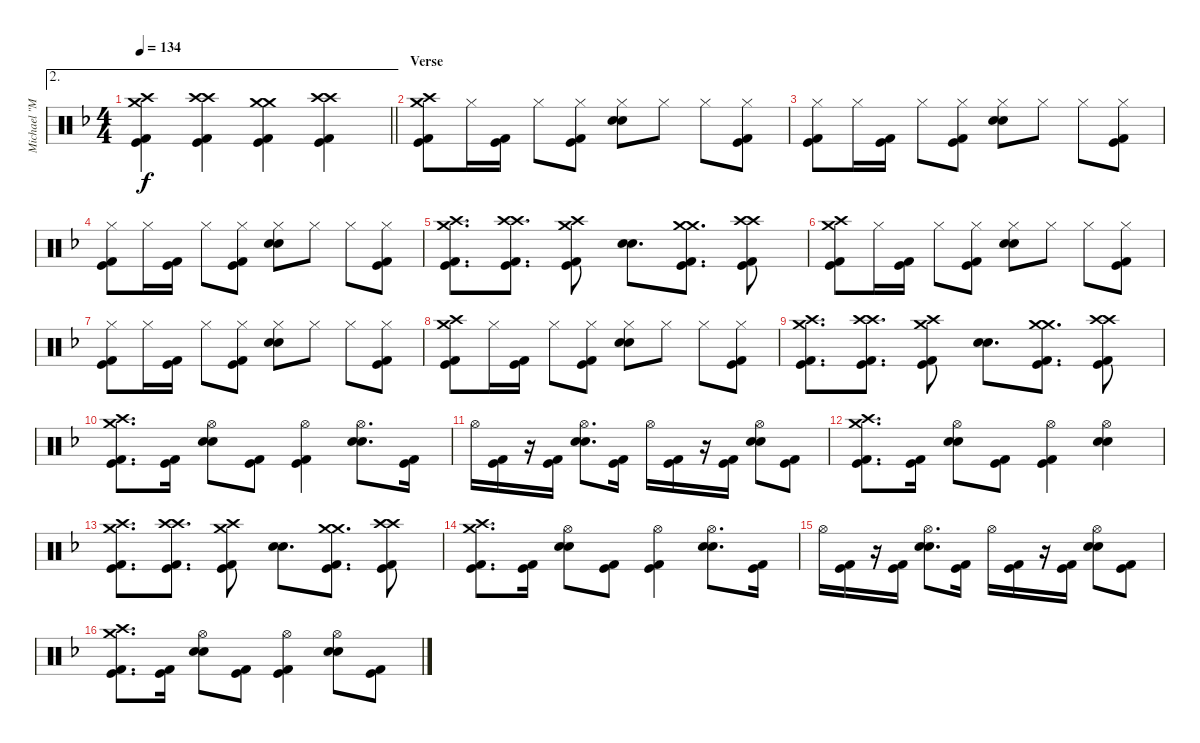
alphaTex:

\track ("Michael \"Moose\" Thomas" "Michael \"M") {instrument percussion}
\staff {score}
\articulation defaults
\ae 2
\ts (4 4)
\tempo 134
\clef neutral
\barLineRight lightlight
\ks f
("Crash high (hit)" "Crash medium (hit)" "Kick (hit)" "Kick (hit) 2").4{dy f} ("Crash high (hit)" "Crash high (hit)" "Kick (hit)" "Kick (hit) 2").4 ("Crash medium (hit)" "Crash medium (hit)" "Kick (hit)" "Kick (hit) 2").4 ("Crash high (hit)" "Crash high (hit)" "Kick (hit)" "Kick (hit) 2").4 |
\section ("" "Verse")
("Crash high (hit)" "Crash medium (hit)" "Kick (hit)" "Kick (hit) 2").8 "Hi-Hat (closed)".16 ("Kick (hit)" "Kick (hit) 2").16 "Hi-Hat (closed)".8 ("Hi-Hat (closed)" "Kick (hit)" "Kick (hit) 2").8 ("Hi-Hat (closed)" "Electric Snare (hit)" "Electric Snare (hit)").8 "Hi-Hat (closed)".8 "Hi-Hat (closed)".8 ("Hi-Hat (closed)" "Kick (hit)" "Kick (hit) 2").8 |
("Hi-Hat (closed)" "Kick (hit)" "Kick (hit) 2").8 "Hi-Hat (closed)".16 ("Kick (hit)" "Kick (hit) 2").16 "Hi-Hat (closed)".8 ("Hi-Hat (closed)" "Kick (hit)" "Kick (hit) 2").8 ("Hi-Hat (closed)" "Electric Snare (hit)" "Electric Snare (hit)").8 "Hi-Hat (closed)".8 "Hi-Hat (closed)".8 ("Hi-Hat (closed)" "Kick (hit)" "Kick (hit) 2").8 |
("Hi-Hat (closed)" "Kick (hit)" "Kick (hit) 2").8 "Hi-Hat (closed)".16 ("Kick (hit)" "Kick (hit) 2").16 "Hi-Hat (closed)".8 ("Hi-Hat (closed)" "Kick (hit)" "Kick (hit) 2").8 ("Hi-Hat (closed)" "Electric Snare (hit)" "Electric Snare (hit)").8 "Hi-Hat (closed)".8 "Hi-Hat (closed)".8 ("Hi-Hat (closed)" "Kick (hit)" "Kick (hit) 2").8 |
("Crash high (hit)" "Crash medium (hit)" "Kick (hit)" "Kick (hit) 2").8{d} ("Crash high (hit)" "Crash high (hit)" "Kick (hit)" "Kick (hit) 2").8{d} ("Crash high (hit)" "Crash medium (hit)" "Kick (hit)" "Kick (hit) 2").8 ("Electric Snare (hit)" "Electric Snare (hit)").8{d} ("Crash medium (hit)" "Crash medium (hit)" "Kick (hit)" "Kick (hit) 2").8{d} ("Crash high (hit)" "Crash high (hit)" "Kick (hit)" "Kick (hit) 2").8 |
("Crash high (hit)" "Crash medium (hit)" "Kick (hit)" "Kick (hit) 2").8 "Hi-Hat (closed)".16 ("Kick (hit)" "Kick (hit) 2").16 "Hi-Hat (closed)".8 ("Hi-Hat (closed)" "Kick (hit)" "Kick (hit) 2").8 ("Hi-Hat (closed)" "Electric Snare (hit)" "Electric Snare (hit)").8 "Hi-Hat (closed)".8 "Hi-Hat (closed)".8 ("Hi-Hat (closed)" "Kick (hit)" "Kick (hit) 2").8 |
("Hi-Hat (closed)" "Kick (hit)" "Kick (hit) 2").8 "Hi-Hat (closed)".16 ("Kick (hit)" "Kick (hit) 2").16 "Hi-Hat (closed)".8 ("Hi-Hat (closed)" "Kick (hit)" "Kick (hit) 2").8 ("Hi-Hat (closed)" "Electric Snare (hit)" "Electric Snare (hit)").8 "Hi-Hat (closed)".8 "Hi-Hat (closed)".8 ("Hi-Hat (closed)" "Kick (hit)" "Kick (hit) 2").8 |
("Crash high (hit)" "Crash medium (hit)" "Kick (hit)" "Kick (hit) 2").8 "Hi-Hat (closed)".16 ("Kick (hit)" "Kick (hit) 2").16 "Hi-Hat (closed)".8 ("Hi-Hat (closed)" "Kick (hit)" "Kick (hit) 2").8 ("Hi-Hat (closed)" "Electric Snare (hit)" "Electric Snare (hit)").8 "Hi-Hat (closed)".8 "Hi-Hat (closed)".8 ("Hi-Hat (closed)" "Kick (hit)" "Kick (hit) 2").8 |
("Crash high (hit)" "Crash medium (hit)" "Kick (hit)" "Kick (hit) 2").8{d} ("Crash high (hit)" "Crash high (hit)" "Kick (hit)" "Kick (hit) 2").8{d} ("Crash high (hit)" "Crash medium (hit)" "Kick (hit)" "Kick (hit) 2").8 ("Electric Snare (hit)" "Electric Snare (hit)").8{d} ("Crash medium (hit)" "Crash medium (hit)" "Kick (hit)" "Kick (hit) 2").8{d} ("Crash high (hit)" "Crash high (hit)" "Kick (hit)" "Kick (hit) 2").8 |
("Crash high (hit)" "Crash medium (hit)" "Kick (hit)" "Kick (hit) 2").8{d} ("Kick (hit)" "Kick (hit) 2").16 ("Hi-Hat (open)" "Electric Snare (hit)" "Electric Snare (hit)").8 ("Kick (hit)" "Kick (hit) 2").8 ("Hi-Hat (open)" "Kick (hit)" "Kick (hit) 2").4 ("Hi-Hat (open)" "Electric Snare (hit)" "Electric Snare (hit)").8{d} ("Kick (hit)" "Kick (hit) 2").16 |
"Hi-Hat (open)".16 ("Kick (hit)" "Kick (hit) 2").16 r.16 ("Kick (hit)" "Kick (hit) 2").16 ("Hi-Hat (open)" "Electric Snare (hit)" "Electric Snare (hit)").8{d} ("Kick (hit)" "Kick (hit) 2").16 "Hi-Hat (open)".16 ("Kick (hit)" "Kick (hit) 2").16 r.16 ("Kick (hit)" "Kick (hit) 2").16 ("Hi-Hat (open)" "Electric Snare (hit)" "Electric Snare (hit)").8 ("Kick (hit)" "Kick (hit) 2").8 |
("Crash high (hit)" "Crash medium (hit)" "Kick (hit)" "Kick (hit) 2").8{d} ("Kick (hit)" "Kick (hit) 2").16 ("Hi-Hat (open)" "Electric Snare (hit)" "Electric Snare (hit)").8 ("Kick (hit)" "Kick (hit) 2").8 ("Hi-Hat (open)" "Kick (hit)" "Kick (hit) 2").4 ("Hi-Hat (open)" "Electric Snare (hit)" "Electric Snare (hit)").4 |
("Crash high (hit)" "Crash medium (hit)" "Kick (hit)" "Kick (hit) 2").8{d} ("Crash high (hit)" "Crash high (hit)" "Kick (hit)" "Kick (hit) 2").8{d} ("Crash high (hit)" "Crash medium (hit)" "Kick (hit)" "Kick (hit) 2").8 ("Electric Snare (hit)" "Electric Snare (hit)").8{d} ("Crash medium (hit)" "Crash medium (hit)" "Kick (hit)" "Kick (hit) 2").8{d} ("Crash high (hit)" "Crash high (hit)" "Kick (hit)" "Kick (hit) 2").8 |
("Crash high (hit)" "Crash medium (hit)" "Kick (hit)" "Kick (hit) 2").8{d} ("Kick (hit)" "Kick (hit) 2").16 ("Hi-Hat (open)" "Electric Snare (hit)" "Electric Snare (hit)").8 ("Kick (hit)" "Kick (hit) 2").8 ("Hi-Hat (open)" "Kick (hit)" "Kick (hit) 2").4 ("Hi-Hat (open)" "Electric Snare (hit)" "Electric Snare (hit)").8{d} ("Kick (hit)" "Kick (hit) 2").16 |
"Hi-Hat (open)".16 ("Kick (hit)" "Kick (hit) 2").16 r.16 ("Kick (hit)" "Kick (hit) 2").16 ("Hi-Hat (open)" "Electric Snare (hit)" "Electric Snare (hit)").8{d} ("Kick (hit)" "Kick (hit) 2").16 "Hi-Hat (open)".16 ("Kick (hit)" "Kick (hit) 2").16 r.16 ("Kick (hit)" "Kick (hit) 2").16 ("Hi-Hat (open)" "Electric Snare (hit)" "Electric Snare (hit)").8 ("Kick (hit)" "Kick (hit) 2").8 |
("Crash high (hit)" "Crash medium (hit)" "Kick (hit)" "Kick (hit) 2").8{d} ("Kick (hit)" "Kick (hit) 2").16 ("Hi-Hat (open)" "Electric Snare (hit)" "Electric Snare (hit)").8 ("Kick (hit)" "Kick (hit) 2").8 ("Hi-Hat (open)" "Kick (hit)" "Kick (hit) 2").4 ("Hi-Hat (open)" "Electric Snare (hit)" "Electric Snare (hit)").8 ("Kick (hit)" "Kick (hit) 2").8
